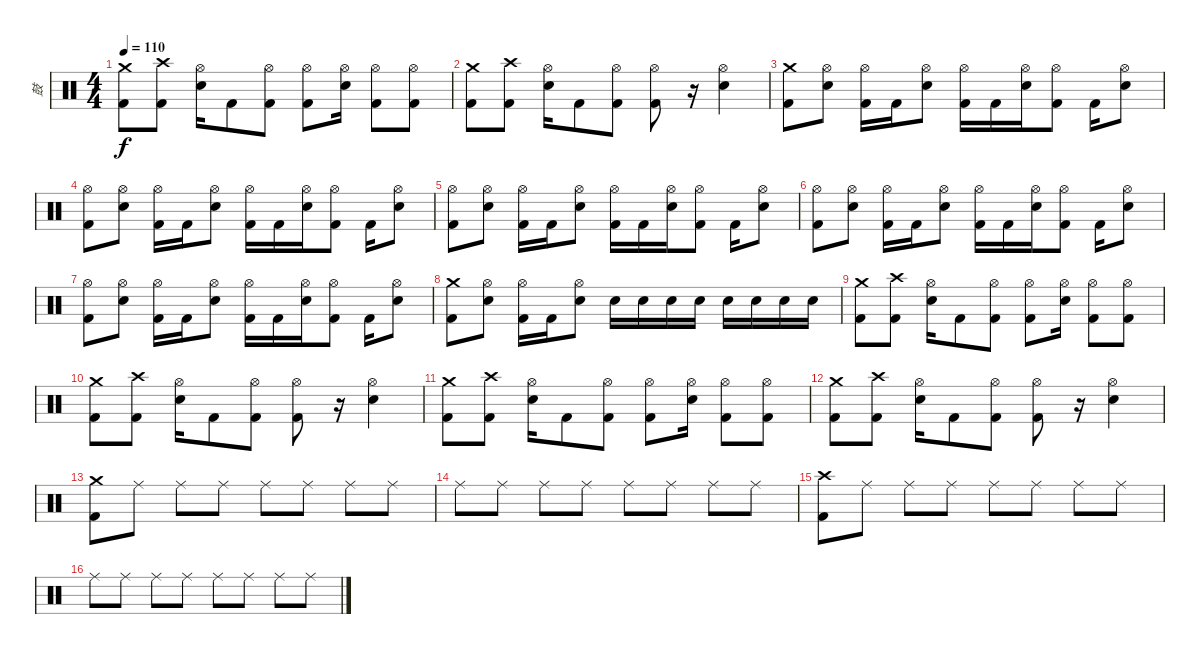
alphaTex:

\track ("鼓" "鼓") {instrument percussion}
\staff {score}
\articulation defaults
\ts (4 4)
\tempo 110
\clef neutral
\ks c
("Kick (hit) 2" "Crash medium (hit)").8{dy f} ("Kick (hit) 2" "Crash high (hit)").8 ("Electric Snare (hit)" "Hi-Hat (open)").16 "Kick (hit) 2".8 ("Kick (hit) 2" "Hi-Hat (open)").8 ("Kick (hit) 2" "Hi-Hat (open)").8 ("Electric Snare (hit)" "Hi-Hat (open)").16 ("Kick (hit) 2" "Hi-Hat (open)").8 ("Kick (hit) 2" "Hi-Hat (open)").8 |
("Kick (hit) 2" "Crash medium (hit)").8 ("Kick (hit) 2" "Crash high (hit)").8 ("Electric Snare (hit)" "Hi-Hat (open)").16 "Kick (hit) 2".8 ("Kick (hit) 2" "Hi-Hat (open)").8 ("Kick (hit) 2" "Hi-Hat (open)").8 r.16 ("Electric Snare (hit)" "Hi-Hat (open)").4 |
("Kick (hit) 2" "Crash medium (hit)").8 ("Electric Snare (hit)" "Hi-Hat (open)").8 ("Kick (hit) 2" "Hi-Hat (open)").16 "Kick (hit) 2".16 ("Electric Snare (hit)" "Hi-Hat (open)").8 ("Kick (hit) 2" "Hi-Hat (open)").16 "Kick (hit) 2".16 ("Electric Snare (hit)" "Hi-Hat (open)").16 ("Kick (hit) 2" "Hi-Hat (open)").8 "Kick (hit) 2".16 ("Electric Snare (hit)" "Hi-Hat (open)").8 |
("Kick (hit) 2" "Hi-Hat (open)").8 ("Electric Snare (hit)" "Hi-Hat (open)").8 ("Kick (hit) 2" "Hi-Hat (open)").16 "Kick (hit) 2".16 ("Electric Snare (hit)" "Hi-Hat (open)").8 ("Kick (hit) 2" "Hi-Hat (open)").16 "Kick (hit) 2".16 ("Electric Snare (hit)" "Hi-Hat (open)").16 ("Kick (hit) 2" "Hi-Hat (open)").8 "Kick (hit) 2".16 ("Electric Snare (hit)" "Hi-Hat (open)").8 |
("Kick (hit) 2" "Hi-Hat (open)").8 ("Electric Snare (hit)" "Hi-Hat (open)").8 ("Kick (hit) 2" "Hi-Hat (open)").16 "Kick (hit) 2".16 ("Electric Snare (hit)" "Hi-Hat (open)").8 ("Kick (hit) 2" "Hi-Hat (open)").16 "Kick (hit) 2".16 ("Electric Snare (hit)" "Hi-Hat (open)").16 ("Kick (hit) 2" "Hi-Hat (open)").8 "Kick (hit) 2".16 ("Electric Snare (hit)" "Hi-Hat (open)").8 |
("Kick (hit) 2" "Hi-Hat (open)").8 ("Electric Snare (hit)" "Hi-Hat (open)").8 ("Kick (hit) 2" "Hi-Hat (open)").16 "Kick (hit) 2".16 ("Electric Snare (hit)" "Hi-Hat (open)").8 ("Kick (hit) 2" "Hi-Hat (open)").16 "Kick (hit) 2".16 ("Electric Snare (hit)" "Hi-Hat (open)").16 ("Kick (hit) 2" "Hi-Hat (open)").8 "Kick (hit) 2".16 ("Electric Snare (hit)" "Hi-Hat (open)").8 |
("Kick (hit) 2" "Hi-Hat (open)").8 ("Electric Snare (hit)" "Hi-Hat (open)").8 ("Kick (hit) 2" "Hi-Hat (open)").16 "Kick (hit) 2".16 ("Electric Snare (hit)" "Hi-Hat (open)").8 ("Kick (hit) 2" "Hi-Hat (open)").16 "Kick (hit) 2".16 ("Electric Snare (hit)" "Hi-Hat (open)").16 ("Kick (hit) 2" "Hi-Hat (open)").8 "Kick (hit) 2".16 ("Electric Snare (hit)" "Hi-Hat (open)").8 |
("Kick (hit) 2" "Crash medium (hit)").8 ("Electric Snare (hit)" "Hi-Hat (open)").8 ("Kick (hit) 2" "Hi-Hat (open)").16 "Kick (hit) 2".16 ("Electric Snare (hit)" "Hi-Hat (open)").8 "Electric Snare (hit)".16 "Electric Snare (hit)".16 "Electric Snare (hit)".16 "Electric Snare (hit)".16 "Electric Snare (hit)".16 "Electric Snare (hit)".16 "Electric Snare (hit)".16 "Electric Snare (hit)".16 |
("Kick (hit) 2" "Crash medium (hit)").8 ("Kick (hit) 2" "Crash high (hit)").8 ("Electric Snare (hit)" "Hi-Hat (open)").16 "Kick (hit) 2".8 ("Kick (hit) 2" "Hi-Hat (open)").8 ("Kick (hit) 2" "Hi-Hat (open)").8 ("Electric Snare (hit)" "Hi-Hat (open)").16 ("Kick (hit) 2" "Hi-Hat (open)").8 ("Kick (hit) 2" "Hi-Hat (open)").8 |
("Kick (hit) 2" "Crash medium (hit)").8 ("Kick (hit) 2" "Crash high (hit)").8 ("Electric Snare (hit)" "Hi-Hat (open)").16 "Kick (hit) 2".8 ("Kick (hit) 2" "Hi-Hat (open)").8 ("Kick (hit) 2" "Hi-Hat (open)").8 r.16 ("Electric Snare (hit)" "Hi-Hat (open)").4 |
("Kick (hit) 2" "Crash medium (hit)").8 ("Kick (hit) 2" "Crash high (hit)").8 ("Electric Snare (hit)" "Hi-Hat (open)").16 "Kick (hit) 2".8 ("Kick (hit) 2" "Hi-Hat (open)").8 ("Kick (hit) 2" "Hi-Hat (open)").8 ("Electric Snare (hit)" "Hi-Hat (open)").16 ("Kick (hit) 2" "Hi-Hat (open)").8 ("Kick (hit) 2" "Hi-Hat (open)").8 |
("Kick (hit) 2" "Crash medium (hit)").8 ("Kick (hit) 2" "Crash high (hit)").8 ("Electric Snare (hit)" "Hi-Hat (open)").16 "Kick (hit) 2".8 ("Kick (hit) 2" "Hi-Hat (open)").8 ("Kick (hit) 2" "Hi-Hat (open)").8 r.16 ("Electric Snare (hit)" "Hi-Hat (open)").4 |
("Kick (hit) 2" "Crash medium (hit)").8 "Ride (middle)".8 "Ride (middle)".8 "Ride (middle)".8 "Ride (middle)".8 "Ride (middle)".8 "Ride (middle)".8 "Ride (middle)".8 |
"Ride (middle)".8 "Ride (middle)".8 "Ride (middle)".8 "Ride (middle)".8 "Ride (middle)".8 "Ride (middle)".8 "Ride (middle)".8 "Ride (middle)".8 |
("Kick (hit) 2" "Crash high (hit)").8 "Ride (middle)".8 "Ride (middle)".8 "Ride (middle)".8 "Ride (middle)".8 "Ride (middle)".8 "Ride (middle)".8 "Ride (middle)".8 |
"Ride (middle)".8 "Ride (middle)".8 "Ride (middle)".8 "Ride (middle)".8 "Ride (middle)".8 "Ride (middle)".8 "Ride (middle)".8 "Ride (middle)".8
